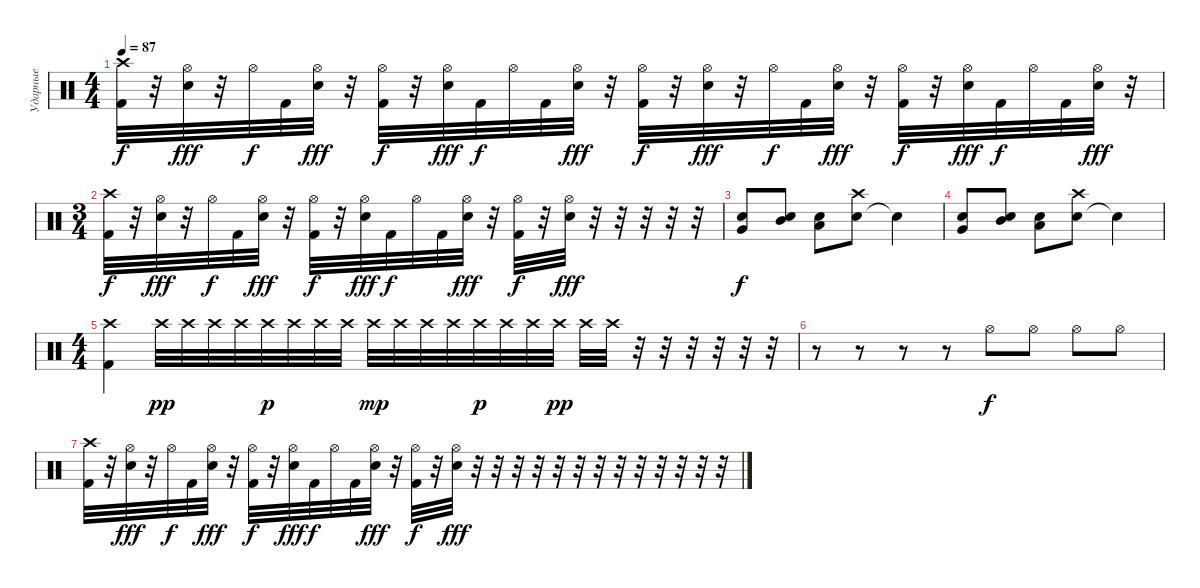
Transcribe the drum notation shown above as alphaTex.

\track ("Ударные" "Ударные") {instrument percussion}
\staff {score}
\articulation defaults
\ts (4 4)
\tempo 87
\clef neutral
\ks c
("Crash high (hit)" "Kick (hit) 2").32{dy f} r.32 ("Hi-Hat (open)" "Snare (hit) 2").32{dy fff} r.32 "Hi-Hat (open)".32{dy f} "Kick (hit) 2".32 ("Hi-Hat (open)" "Snare (hit) 2").32{dy fff} r.32 ("Hi-Hat (open)" "Kick (hit) 2").32{dy f} r.32 ("Hi-Hat (open)" "Snare (hit) 2").32{dy fff} "Kick (hit) 2".32{dy f} "Hi-Hat (open)".32 "Kick (hit) 2".32 ("Hi-Hat (open)" "Snare (hit) 2").32{dy fff} r.32 ("Hi-Hat (open)" "Kick (hit) 2").32{dy f} r.32 ("Hi-Hat (open)" "Snare (hit) 2").32{dy fff} r.32 "Hi-Hat (open)".32{dy f} "Kick (hit) 2".32 ("Hi-Hat (open)" "Snare (hit) 2").32{dy fff} r.32 ("Hi-Hat (open)" "Kick (hit) 2").32{dy f} r.32 ("Hi-Hat (open)" "Snare (hit) 2").32{dy fff} "Kick (hit) 2".32{dy f} "Hi-Hat (open)".32 "Kick (hit) 2".32 ("Hi-Hat (open)" "Snare (hit) 2").32{dy fff} r.32 |
\ts (3 4)
("Crash high (hit)" "Kick (hit) 2").32{dy f} r.32 ("Hi-Hat (open)" "Snare (hit) 2").32{dy fff} r.32 "Hi-Hat (open)".32{dy f} "Kick (hit) 2".32 ("Hi-Hat (open)" "Snare (hit) 2").32{dy fff} r.32 ("Hi-Hat (open)" "Kick (hit) 2").32{dy f} r.32 ("Hi-Hat (open)" "Snare (hit) 2").32{dy fff} "Kick (hit) 2".32{dy f} "Hi-Hat (open)".32 "Kick (hit) 2".32 ("Hi-Hat (open)" "Snare (hit) 2").32{dy fff} r.32 ("Hi-Hat (open)" "Kick (hit) 2").32{dy f} r.32 ("Hi-Hat (open)" "Snare (hit) 2").32{dy fff} r.32 r.32 r.32 r.32 r.32 |
("Very Low Tom (hit)" "Snare (hit) 2").8{dy f} ("Snare (hit) 2" "Mid Tom (hit)").8 ("Snare (hit) 2" "Low Tom (hit)").8 ("Snare (hit) 2" "Crash high (hit)").8 "Snare (hit)"{t}.4 |
("Very Low Tom (hit)" "Snare (hit) 2").8 ("Snare (hit) 2" "Mid Tom (hit)").8 ("Snare (hit) 2" "Low Tom (hit)").8 ("Snare (hit) 2" "Crash high (hit)").8 "Snare (hit)"{t}.4 |
\ts (4 4)
("Kick (hit) 2" "Crash high (hit)").4 "Crash high (hit)".32{dy pp} "Crash high (hit)".32 "Crash high (hit)".32 "Crash high (hit)".32 "Crash high (hit)".32{dy p} "Crash high (hit)".32 "Crash high (hit)".32 "Crash high (hit)".32 "Crash high (hit)".32{dy mp} "Crash high (hit)".32 "Crash high (hit)".32 "Crash high (hit)".32 "Crash high (hit)".32{dy p} "Crash high (hit)".32 "Crash high (hit)".32 "Crash high (hit)".32{dy pp} "Crash high (hit)".32 "Crash high (hit)".32 r.32 r.32 r.32 r.32 r.32 r.32 |
r.8 r.8 r.8 r.8 "Hi-Hat (open)".8{dy f} "Hi-Hat (open)".8 "Hi-Hat (open)".8 "Hi-Hat (open)".8 |
("Crash high (hit)" "Kick (hit) 2").32 r.32 ("Hi-Hat (open)" "Snare (hit) 2").32{dy fff} r.32 "Hi-Hat (open)".32{dy f} "Kick (hit) 2".32 ("Hi-Hat (open)" "Snare (hit) 2").32{dy fff} r.32 ("Hi-Hat (open)" "Kick (hit) 2").32{dy f} r.32 ("Hi-Hat (open)" "Snare (hit) 2").32{dy fff} "Kick (hit) 2".32{dy f} "Hi-Hat (open)".32 "Kick (hit) 2".32 ("Hi-Hat (open)" "Snare (hit) 2").32{dy fff} r.32 ("Hi-Hat (open)" "Kick (hit) 2").32{dy f} r.32 ("Hi-Hat (open)" "Snare (hit) 2").32{dy fff} r.32 r.32 r.32 r.32 r.32 r.32 r.32 r.32 r.32 r.32 r.32 r.32 r.32
